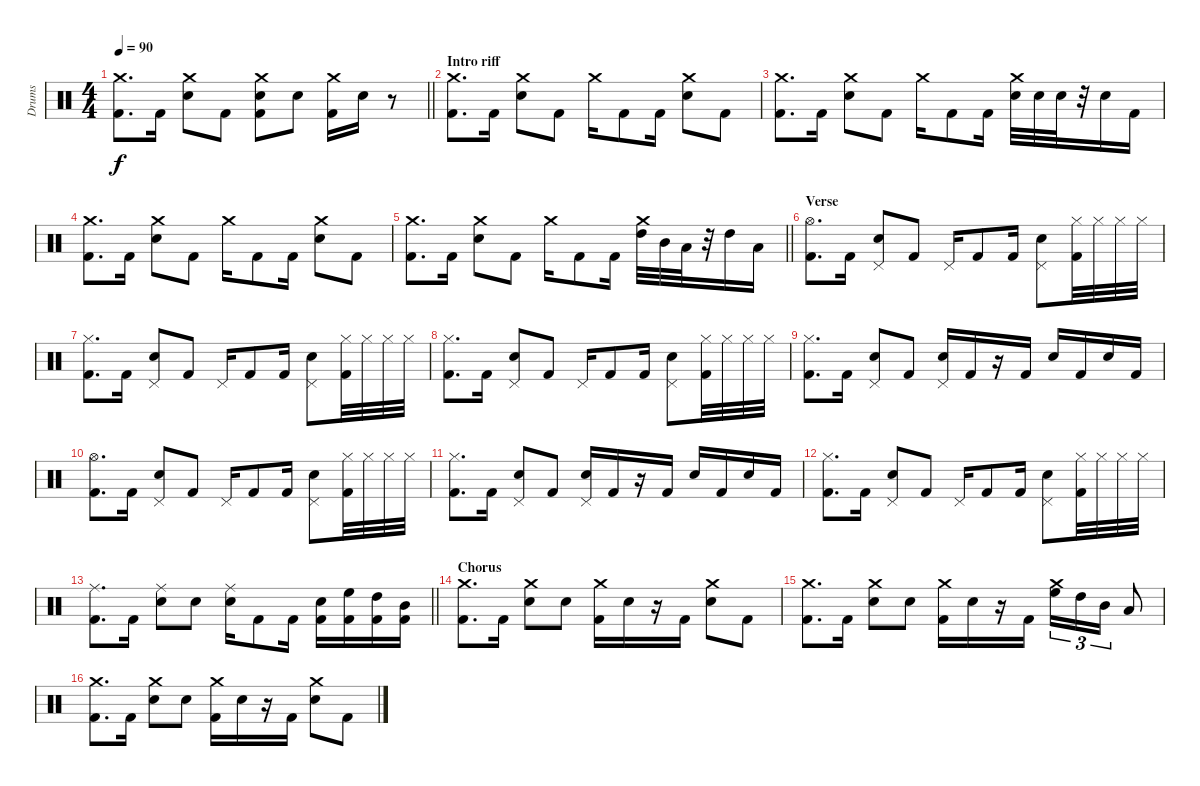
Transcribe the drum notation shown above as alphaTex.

\track ("Drums" "Drums") {instrument percussion}
\staff {score}
\articulation defaults
\ts (4 4)
\tempo 90
\clef neutral
\barLineRight lightlight
\ks c
("Crash medium (hit)" "Kick (hit) 2").8{d dy f} "Kick (hit) 2".16 ("Crash medium (hit)" "Electric Snare (hit)").8 "Kick (hit) 2".8 ("Crash medium (hit)" "Electric Snare (hit)" "Kick (hit) 2").8 "Electric Snare (hit)".8 ("Crash medium (hit)" "Kick (hit) 2").16 "Electric Snare (hit)".16 r.8 |
\section ("" "Intro riff")
("Crash medium (hit)" "Kick (hit) 2").8{d} "Kick (hit) 2".16 ("Crash medium (hit)" "Electric Snare (hit)").8 "Kick (hit) 2".8 "Crash medium (hit)".16 "Kick (hit) 2".8 "Kick (hit) 2".16 ("Crash medium (hit)" "Electric Snare (hit)").8 "Kick (hit) 2".8 |
("Crash medium (hit)" "Kick (hit) 2").8{d} "Kick (hit) 2".16 ("Crash medium (hit)" "Electric Snare (hit)").8 "Kick (hit) 2".8 "Crash medium (hit)".16 "Kick (hit) 2".8 "Kick (hit) 2".16 ("Crash medium (hit)" "Electric Snare (hit)").32 "Electric Snare (hit)".32 "Electric Snare (hit)".32 r.32 "Electric Snare (hit)".16 "Kick (hit) 2".16 |
("Crash medium (hit)" "Kick (hit) 2").8{d} "Kick (hit) 2".16 ("Crash medium (hit)" "Electric Snare (hit)").8 "Kick (hit) 2".8 "Crash medium (hit)".16 "Kick (hit) 2".8 "Kick (hit) 2".16 ("Crash medium (hit)" "Electric Snare (hit)").8 "Kick (hit) 2".8 |
\barLineRight lightlight
("Crash medium (hit)" "Kick (hit) 2").8{d} "Kick (hit) 2".16 ("Crash medium (hit)" "Electric Snare (hit)").8 "Kick (hit) 2".8 "Crash medium (hit)".16 "Kick (hit) 2".8 "Kick (hit) 2".16 ("Crash medium (hit)" "High Tom (hit)").32 "Mid Tom (hit)".32 "Low Tom (hit)".32 r.32 "High Tom (hit)".16 "Low Tom (hit)".16 |
\section ("" "Verse")
("Hi-Hat (open)" "Kick (hit) 2").8{d} "Kick (hit) 2".16 ("Pedal Hi-Hat (hit)" "Electric Snare (hit)").8 "Kick (hit) 2".8 "Pedal Hi-Hat (hit)".16 "Kick (hit) 2".8 "Kick (hit) 2".16 ("Pedal Hi-Hat (hit)" "Electric Snare (hit)").8 ("Hi-Hat (closed)" "Kick (hit) 2").32 "Hi-Hat (closed)".32 "Hi-Hat (closed)".32 "Hi-Hat (closed)".32 |
("Hi-Hat (closed)" "Kick (hit) 2").8{d} "Kick (hit) 2".16 ("Pedal Hi-Hat (hit)" "Electric Snare (hit)").8 "Kick (hit) 2".8 "Pedal Hi-Hat (hit)".16 "Kick (hit) 2".8 "Kick (hit) 2".16 ("Pedal Hi-Hat (hit)" "Electric Snare (hit)").8 ("Hi-Hat (closed)" "Kick (hit) 2").32 "Hi-Hat (closed)".32 "Hi-Hat (closed)".32 "Hi-Hat (closed)".32 |
("Hi-Hat (closed)" "Kick (hit) 2").8{d} "Kick (hit) 2".16 ("Pedal Hi-Hat (hit)" "Electric Snare (hit)").8 "Kick (hit) 2".8 "Pedal Hi-Hat (hit)".16 "Kick (hit) 2".8 "Kick (hit) 2".16 ("Pedal Hi-Hat (hit)" "Electric Snare (hit)").8 ("Hi-Hat (closed)" "Kick (hit) 2").32 "Hi-Hat (closed)".32 "Hi-Hat (closed)".32 "Hi-Hat (closed)".32 |
("Hi-Hat (closed)" "Kick (hit) 2").8{d} "Kick (hit) 2".16 ("Pedal Hi-Hat (hit)" "Electric Snare (hit)").8 "Kick (hit) 2".8 ("Pedal Hi-Hat (hit)" "Electric Snare (hit)").16 "Kick (hit) 2".16 r.16 "Kick (hit) 2".16 "Electric Snare (hit)".16 "Kick (hit) 2".16 "Electric Snare (hit)".16 "Kick (hit) 2".16 |
("Hi-Hat (open)" "Kick (hit) 2").8{d} "Kick (hit) 2".16 ("Pedal Hi-Hat (hit)" "Electric Snare (hit)").8 "Kick (hit) 2".8 "Pedal Hi-Hat (hit)".16 "Kick (hit) 2".8 "Kick (hit) 2".16 ("Pedal Hi-Hat (hit)" "Electric Snare (hit)").8 ("Hi-Hat (closed)" "Kick (hit) 2").32 "Hi-Hat (closed)".32 "Hi-Hat (closed)".32 "Hi-Hat (closed)".32 |
("Hi-Hat (closed)" "Kick (hit) 2").8{d} "Kick (hit) 2".16 ("Pedal Hi-Hat (hit)" "Electric Snare (hit)").8 "Kick (hit) 2".8 ("Pedal Hi-Hat (hit)" "Electric Snare (hit)").16 "Kick (hit) 2".16 r.16 "Kick (hit) 2".16 "Electric Snare (hit)".16 "Kick (hit) 2".16 "Electric Snare (hit)".16 "Kick (hit) 2".16 |
("Hi-Hat (closed)" "Kick (hit) 2").8{d} "Kick (hit) 2".16 ("Pedal Hi-Hat (hit)" "Electric Snare (hit)").8 "Kick (hit) 2".8 "Pedal Hi-Hat (hit)".16 "Kick (hit) 2".8 "Kick (hit) 2".16 ("Pedal Hi-Hat (hit)" "Electric Snare (hit)").8 ("Hi-Hat (closed)" "Kick (hit) 2").32 "Hi-Hat (closed)".32 "Hi-Hat (closed)".32 "Hi-Hat (closed)".32 |
\barLineRight lightlight
("Ride (middle)" "Kick (hit) 2").8{d} "Kick (hit) 2".16 ("Ride (middle)" "Electric Snare (hit)").8 "Electric Snare (hit)".8 ("Ride (middle)" "Electric Snare (hit)").16 "Kick (hit) 2".8 "Kick (hit) 2".16 ("Electric Snare (hit)" "Kick (hit) 2").16 ("High Floor Tom (hit)" "Kick (hit) 2").16 ("High Tom (hit)" "Kick (hit) 2").16 ("Mid Tom (hit)" "Kick (hit) 2").16 |
\section ("" "Chorus")
("Crash medium (hit)" "Kick (hit) 2").8{d} "Kick (hit) 2".16 ("Crash medium (hit)" "Electric Snare (hit)").8 "Electric Snare (hit)".8 ("Crash medium (hit)" "Kick (hit) 2").16 "Electric Snare (hit)".16 r.16 "Kick (hit) 2".16 ("Crash medium (hit)" "Electric Snare (hit)").8 "Kick (hit) 2".8 |
("Crash medium (hit)" "Kick (hit) 2").8{d} "Kick (hit) 2".16 ("Crash medium (hit)" "Electric Snare (hit)").8 "Electric Snare (hit)".8 ("Crash medium (hit)" "Kick (hit) 2").16 "Electric Snare (hit)".16 r.16 "Kick (hit) 2".16 ("Crash medium (hit)" "High Floor Tom (hit)").16{tu (3 2)} "High Tom (hit)".16{tu (3 2)} "Mid Tom (hit)".16{tu (3 2)} "Low Tom (hit)".8 |
("Crash medium (hit)" "Kick (hit) 2").8{d} "Kick (hit) 2".16 ("Crash medium (hit)" "Electric Snare (hit)").8 "Electric Snare (hit)".8 ("Crash medium (hit)" "Kick (hit) 2").16 "Electric Snare (hit)".16 r.16 "Kick (hit) 2".16 ("Crash medium (hit)" "Electric Snare (hit)").8 "Kick (hit) 2".8
